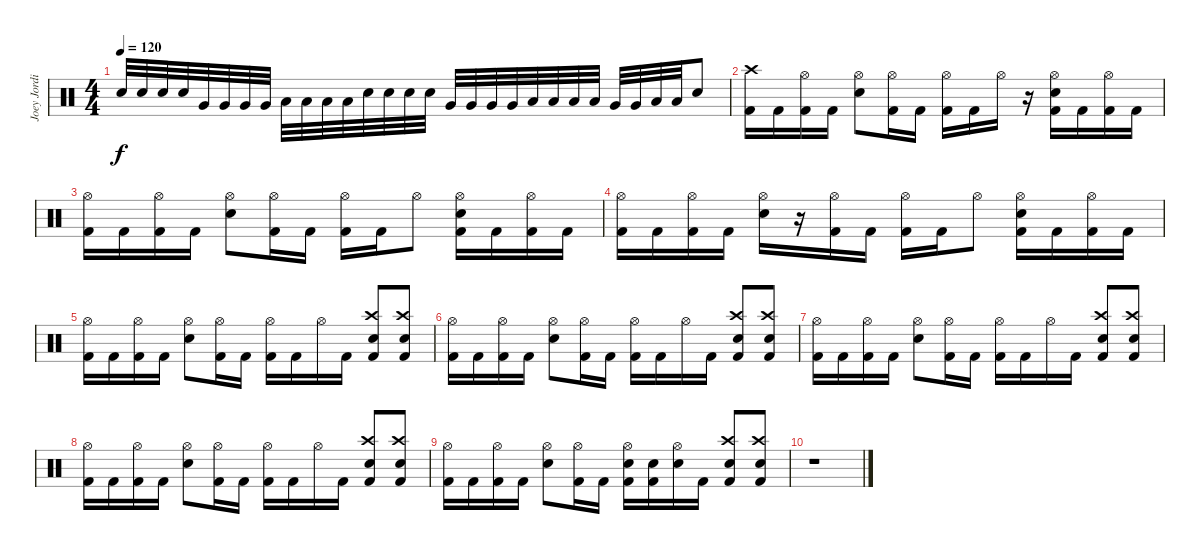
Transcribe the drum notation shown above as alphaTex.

\track ("Joey Jordison   #1" "Joey Jordi") {instrument percussion}
\staff {score}
\articulation defaults
\ts (4 4)
\tempo 120
\clef neutral
\ks c "Electric Snare (hit)".32{dy f} "Electric Snare (hit)".32 "Electric Snare (hit)".32 "Electric Snare (hit)".32 "Very Low Tom (hit)".32 "Very Low Tom (hit)".32 "Very Low Tom (hit)".32 "Very Low Tom (hit)".32 "Low Floor Tom (hit)".32 "Low Floor Tom (hit)".32 "Low Floor Tom (hit)".32 "Low Floor Tom (hit)".32 "Electric Snare (hit)".32 "Electric Snare (hit)".32 "Electric Snare (hit)".32 "Electric Snare (hit)".32 "Very Low Tom (hit)".32 "Very Low Tom (hit)".32 "Very Low Tom (hit)".32 "Very Low Tom (hit)".32 "Low Floor Tom (hit)".32 "Low Floor Tom (hit)".32 "Low Floor Tom (hit)".32 "Low Floor Tom (hit)".32 "Very Low Tom (hit)".32 "Very Low Tom (hit)".32 "Low Floor Tom (hit)".32 "Low Floor Tom (hit)".32 "Electric Snare (hit)".8
|
("Crash high (hit)" "Kick (hit) 2").16 "Kick (hit) 2".16 ("Hi-Hat (open)" "Kick (hit) 2").16 "Kick (hit) 2".16 ("Hi-Hat (open)" "Electric Snare (hit)").8 ("Hi-Hat (open)" "Kick (hit) 2").16 "Kick (hit) 2".16 ("Hi-Hat (open)" "Kick (hit) 2").16 "Kick (hit) 2".16 "Hi-Hat (open)".16 r.16 ("Hi-Hat (open)" "Electric Snare (hit)" "Kick (hit) 2").16 "Kick (hit) 2".16 ("Hi-Hat (open)" "Kick (hit) 2").16 "Kick (hit) 2".16 |
("Hi-Hat (open)" "Kick (hit) 2").16 "Kick (hit) 2".16 ("Hi-Hat (open)" "Kick (hit) 2").16 "Kick (hit) 2".16 ("Hi-Hat (open)" "Electric Snare (hit)").8 ("Hi-Hat (open)" "Kick (hit) 2").16 "Kick (hit) 2".16 ("Hi-Hat (open)" "Kick (hit) 2").16 "Kick (hit) 2".16 "Hi-Hat (open)".8 ("Hi-Hat (open)" "Electric Snare (hit)" "Kick (hit) 2").16 "Kick (hit) 2".16 ("Hi-Hat (open)" "Kick (hit) 2").16 "Kick (hit) 2".16 |
("Hi-Hat (open)" "Kick (hit) 2").16 "Kick (hit) 2".16 ("Hi-Hat (open)" "Kick (hit) 2").16 "Kick (hit) 2".16 ("Hi-Hat (open)" "Electric Snare (hit)").16 r.16 ("Hi-Hat (open)" "Kick (hit) 2").16 "Kick (hit) 2".16 ("Hi-Hat (open)" "Kick (hit) 2").16 "Kick (hit) 2".16 "Hi-Hat (open)".8 ("Hi-Hat (open)" "Electric Snare (hit)" "Kick (hit) 2").16 "Kick (hit) 2".16 ("Hi-Hat (open)" "Kick (hit) 2").16 "Kick (hit) 2".16 |
("Hi-Hat (open)" "Kick (hit) 2").16 "Kick (hit) 2".16 ("Hi-Hat (open)" "Kick (hit) 2").16 "Kick (hit) 2".16 ("Hi-Hat (open)" "Electric Snare (hit)").8 ("Hi-Hat (open)" "Kick (hit) 2").16 "Kick (hit) 2".16 ("Hi-Hat (open)" "Kick (hit) 2").16 "Kick (hit) 2".16 "Hi-Hat (open)".16 "Kick (hit) 2".16 ("Electric Snare (hit)" "Crash high (hit)" "Kick (hit) 2").8 ("Electric Snare (hit)" "Crash high (hit)" "Kick (hit) 2").8 |
("Hi-Hat (open)" "Kick (hit) 2").16 "Kick (hit) 2".16 ("Hi-Hat (open)" "Kick (hit) 2").16 "Kick (hit) 2".16 ("Hi-Hat (open)" "Electric Snare (hit)").8 ("Hi-Hat (open)" "Kick (hit) 2").16 "Kick (hit) 2".16 ("Hi-Hat (open)" "Kick (hit) 2").16 "Kick (hit) 2".16 "Hi-Hat (open)".16 "Kick (hit) 2".16 ("Electric Snare (hit)" "Crash high (hit)" "Kick (hit) 2").8 ("Electric Snare (hit)" "Crash high (hit)" "Kick (hit) 2").8 |
("Hi-Hat (open)" "Kick (hit) 2").16 "Kick (hit) 2".16 ("Hi-Hat (open)" "Kick (hit) 2").16 "Kick (hit) 2".16 ("Hi-Hat (open)" "Electric Snare (hit)").8 ("Hi-Hat (open)" "Kick (hit) 2").16 "Kick (hit) 2".16 ("Hi-Hat (open)" "Kick (hit) 2").16 "Kick (hit) 2".16 "Hi-Hat (open)".16 "Kick (hit) 2".16 ("Electric Snare (hit)" "Crash high (hit)" "Kick (hit) 2").8 ("Electric Snare (hit)" "Crash high (hit)" "Kick (hit) 2").8 |
("Hi-Hat (open)" "Kick (hit) 2").16 "Kick (hit) 2".16 ("Hi-Hat (open)" "Kick (hit) 2").16 "Kick (hit) 2".16 ("Hi-Hat (open)" "Electric Snare (hit)").8 ("Hi-Hat (open)" "Kick (hit) 2").16 "Kick (hit) 2".16 ("Hi-Hat (open)" "Kick (hit) 2").16 "Kick (hit) 2".16 "Hi-Hat (open)".16 "Kick (hit) 2".16 ("Electric Snare (hit)" "Crash high (hit)" "Kick (hit) 2").8 ("Electric Snare (hit)" "Crash high (hit)" "Kick (hit) 2").8 |
("Hi-Hat (open)" "Kick (hit) 2").16 "Kick (hit) 2".16 ("Hi-Hat (open)" "Kick (hit) 2").16 "Kick (hit) 2".16 ("Hi-Hat (open)" "Electric Snare (hit)").8 ("Hi-Hat (open)" "Kick (hit) 2").16 "Kick (hit) 2".16 ("Hi-Hat (open)" "Electric Snare (hit)" "Kick (hit) 2").16 ("Electric Snare (hit)" "Kick (hit) 2").16 ("Hi-Hat (open)" "Electric Snare (hit)").16 "Kick (hit) 2".16 ("Electric Snare (hit)" "Crash high (hit)" "Kick (hit) 2").8 ("Electric Snare (hit)" "Crash high (hit)" "Kick (hit) 2").8 |
r.1
